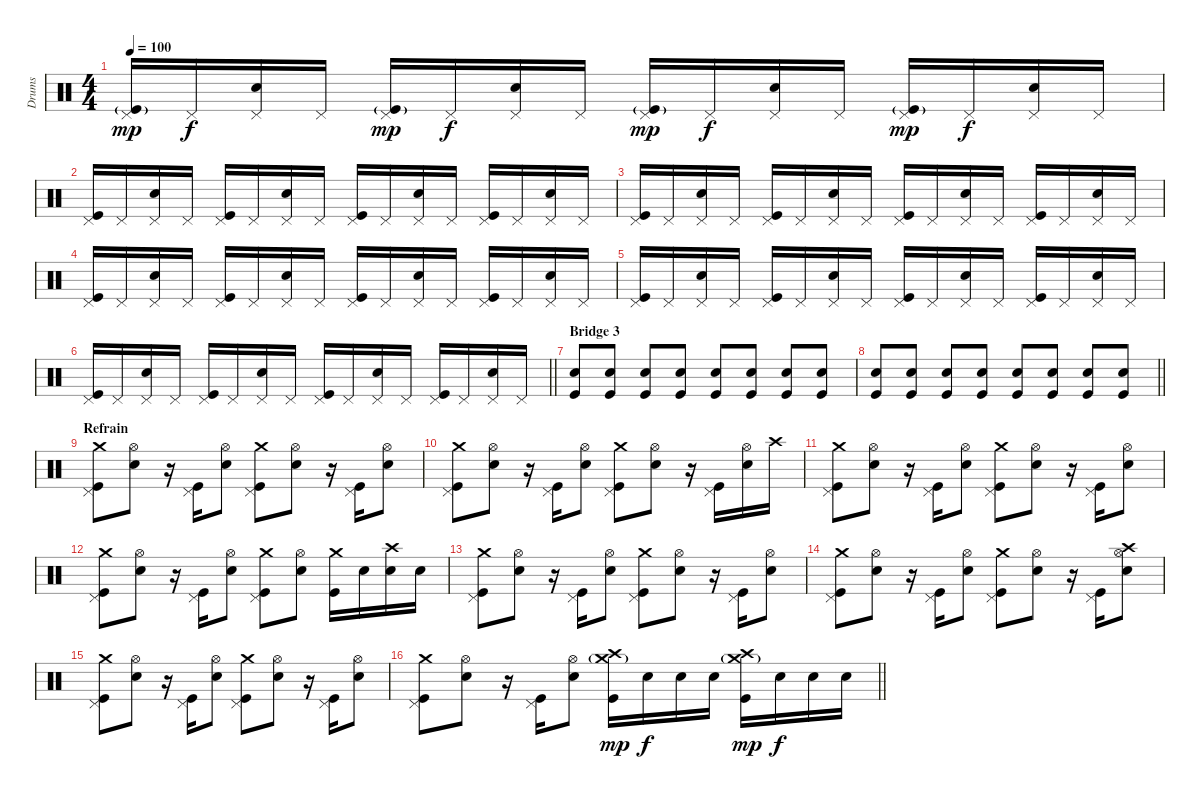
\track ("Drums" "Drums") {instrument percussion}
\staff {score}
\articulation defaults
\ts (4 4)
\tempo 100
\clef neutral
\ks c
("Pedal Hi-Hat (hit)" "Kick (hit)"{g}).16{dy mp} "Pedal Hi-Hat (hit)".16{dy f} ("Pedal Hi-Hat (hit)" "Electric Snare (hit)").16 "Pedal Hi-Hat (hit)".16 ("Pedal Hi-Hat (hit)" "Kick (hit)"{g}).16{dy mp} "Pedal Hi-Hat (hit)".16{dy f} ("Pedal Hi-Hat (hit)" "Electric Snare (hit)").16 "Pedal Hi-Hat (hit)".16 ("Pedal Hi-Hat (hit)" "Kick (hit)"{g}).16{dy mp} "Pedal Hi-Hat (hit)".16{dy f} ("Pedal Hi-Hat (hit)" "Electric Snare (hit)").16 "Pedal Hi-Hat (hit)".16 ("Pedal Hi-Hat (hit)" "Kick (hit)"{g}).16{dy mp} "Pedal Hi-Hat (hit)".16{dy f} ("Pedal Hi-Hat (hit)" "Electric Snare (hit)").16 "Pedal Hi-Hat (hit)".16 |
("Pedal Hi-Hat (hit)" "Kick (hit)").16 "Pedal Hi-Hat (hit)".16 ("Pedal Hi-Hat (hit)" "Electric Snare (hit)").16 "Pedal Hi-Hat (hit)".16 ("Pedal Hi-Hat (hit)" "Kick (hit)").16 "Pedal Hi-Hat (hit)".16 ("Pedal Hi-Hat (hit)" "Electric Snare (hit)").16 "Pedal Hi-Hat (hit)".16 ("Pedal Hi-Hat (hit)" "Kick (hit)").16 "Pedal Hi-Hat (hit)".16 ("Pedal Hi-Hat (hit)" "Electric Snare (hit)").16 "Pedal Hi-Hat (hit)".16 ("Pedal Hi-Hat (hit)" "Kick (hit)").16 "Pedal Hi-Hat (hit)".16 ("Pedal Hi-Hat (hit)" "Electric Snare (hit)").16 "Pedal Hi-Hat (hit)".16 |
("Pedal Hi-Hat (hit)" "Kick (hit)").16 "Pedal Hi-Hat (hit)".16 ("Pedal Hi-Hat (hit)" "Electric Snare (hit)").16 "Pedal Hi-Hat (hit)".16 ("Pedal Hi-Hat (hit)" "Kick (hit)").16 "Pedal Hi-Hat (hit)".16 ("Pedal Hi-Hat (hit)" "Electric Snare (hit)").16 "Pedal Hi-Hat (hit)".16 ("Pedal Hi-Hat (hit)" "Kick (hit)").16 "Pedal Hi-Hat (hit)".16 ("Pedal Hi-Hat (hit)" "Electric Snare (hit)").16 "Pedal Hi-Hat (hit)".16 ("Pedal Hi-Hat (hit)" "Kick (hit)").16 "Pedal Hi-Hat (hit)".16 ("Pedal Hi-Hat (hit)" "Electric Snare (hit)").16 "Pedal Hi-Hat (hit)".16 |
("Pedal Hi-Hat (hit)" "Kick (hit)").16 "Pedal Hi-Hat (hit)".16 ("Pedal Hi-Hat (hit)" "Electric Snare (hit)").16 "Pedal Hi-Hat (hit)".16 ("Pedal Hi-Hat (hit)" "Kick (hit)").16 "Pedal Hi-Hat (hit)".16 ("Pedal Hi-Hat (hit)" "Electric Snare (hit)").16 "Pedal Hi-Hat (hit)".16 ("Pedal Hi-Hat (hit)" "Kick (hit)").16 "Pedal Hi-Hat (hit)".16 ("Pedal Hi-Hat (hit)" "Electric Snare (hit)").16 "Pedal Hi-Hat (hit)".16 ("Pedal Hi-Hat (hit)" "Kick (hit)").16 "Pedal Hi-Hat (hit)".16 ("Pedal Hi-Hat (hit)" "Electric Snare (hit)").16 "Pedal Hi-Hat (hit)".16 |
("Pedal Hi-Hat (hit)" "Kick (hit)").16 "Pedal Hi-Hat (hit)".16 ("Pedal Hi-Hat (hit)" "Electric Snare (hit)").16 "Pedal Hi-Hat (hit)".16 ("Pedal Hi-Hat (hit)" "Kick (hit)").16 "Pedal Hi-Hat (hit)".16 ("Pedal Hi-Hat (hit)" "Electric Snare (hit)").16 "Pedal Hi-Hat (hit)".16 ("Pedal Hi-Hat (hit)" "Kick (hit)").16 "Pedal Hi-Hat (hit)".16 ("Pedal Hi-Hat (hit)" "Electric Snare (hit)").16 "Pedal Hi-Hat (hit)".16 ("Pedal Hi-Hat (hit)" "Kick (hit)").16 "Pedal Hi-Hat (hit)".16 ("Pedal Hi-Hat (hit)" "Electric Snare (hit)").16 "Pedal Hi-Hat (hit)".16 |
\barLineRight lightlight
("Pedal Hi-Hat (hit)" "Kick (hit)").16 "Pedal Hi-Hat (hit)".16 ("Pedal Hi-Hat (hit)" "Electric Snare (hit)").16 "Pedal Hi-Hat (hit)".16 ("Pedal Hi-Hat (hit)" "Kick (hit)").16 "Pedal Hi-Hat (hit)".16 ("Pedal Hi-Hat (hit)" "Electric Snare (hit)").16 "Pedal Hi-Hat (hit)".16 ("Pedal Hi-Hat (hit)" "Kick (hit)").16 "Pedal Hi-Hat (hit)".16 ("Pedal Hi-Hat (hit)" "Electric Snare (hit)").16 "Pedal Hi-Hat (hit)".16 ("Pedal Hi-Hat (hit)" "Kick (hit)").16 "Pedal Hi-Hat (hit)".16 ("Pedal Hi-Hat (hit)" "Electric Snare (hit)").16 "Pedal Hi-Hat (hit)".16 |
\section ("" "Bridge 3")
("Hand Clap (hit)" "Kick (hit)").8 ("Hand Clap (hit)" "Kick (hit)").8 ("Hand Clap (hit)" "Kick (hit)").8 ("Hand Clap (hit)" "Kick (hit)").8 ("Hand Clap (hit)" "Kick (hit)").8 ("Hand Clap (hit)" "Kick (hit)").8 ("Hand Clap (hit)" "Kick (hit)").8 ("Hand Clap (hit)" "Kick (hit)").8 |
\barLineRight lightlight
("Hand Clap (hit)" "Kick (hit)").8 ("Hand Clap (hit)" "Kick (hit)").8 ("Hand Clap (hit)" "Kick (hit)").8 ("Hand Clap (hit)" "Kick (hit)").8 ("Hand Clap (hit)" "Kick (hit)").8 ("Hand Clap (hit)" "Kick (hit)").8 ("Hand Clap (hit)" "Kick (hit)").8 ("Hand Clap (hit)" "Kick (hit)").8 |
\section ("" "Refrain")
("Crash medium (hit)" "Pedal Hi-Hat (hit)" "Kick (hit)").8 ("Hi-Hat (open)" "Electric Snare (hit)").8 r.16 ("Pedal Hi-Hat (hit)" "Kick (hit)").16 ("Hi-Hat (open)" "Electric Snare (hit)").8 ("Crash medium (hit)" "Pedal Hi-Hat (hit)" "Kick (hit)").8 ("Hi-Hat (open)" "Electric Snare (hit)").8 r.16 ("Pedal Hi-Hat (hit)" "Kick (hit)").16 ("Hi-Hat (open)" "Electric Snare (hit)").8 |
("Crash medium (hit)" "Pedal Hi-Hat (hit)" "Kick (hit)").8 ("Hi-Hat (open)" "Electric Snare (hit)").8 r.16 ("Pedal Hi-Hat (hit)" "Kick (hit)").16 ("Hi-Hat (open)" "Electric Snare (hit)").8 ("Crash medium (hit)" "Pedal Hi-Hat (hit)" "Kick (hit)").8 ("Hi-Hat (open)" "Electric Snare (hit)").8 r.16 ("Pedal Hi-Hat (hit)" "Kick (hit)").16 ("Hi-Hat (open)" "Electric Snare (hit)").16 "Crash high (hit)".16 |
("Crash medium (hit)" "Pedal Hi-Hat (hit)" "Kick (hit)").8 ("Hi-Hat (open)" "Electric Snare (hit)").8 r.16 ("Pedal Hi-Hat (hit)" "Kick (hit)").16 ("Hi-Hat (open)" "Electric Snare (hit)").8 ("Crash medium (hit)" "Pedal Hi-Hat (hit)" "Kick (hit)").8 ("Hi-Hat (open)" "Electric Snare (hit)").8 r.16 ("Pedal Hi-Hat (hit)" "Kick (hit)").16 ("Hi-Hat (open)" "Electric Snare (hit)").8 |
("Crash medium (hit)" "Pedal Hi-Hat (hit)" "Kick (hit)").8 ("Hi-Hat (open)" "Electric Snare (hit)").8 r.16 ("Pedal Hi-Hat (hit)" "Kick (hit)").16 ("Hi-Hat (open)" "Electric Snare (hit)").8 ("Crash medium (hit)" "Pedal Hi-Hat (hit)" "Kick (hit)").8 ("Hi-Hat (open)" "Electric Snare (hit)").8 ("Crash medium (hit)" "Kick (hit)").16 "Electric Snare (hit)".16 ("Crash high (hit)" "Electric Snare (hit)").16 "Electric Snare (hit)".16 |
("Crash medium (hit)" "Pedal Hi-Hat (hit)" "Kick (hit)").8 ("Hi-Hat (open)" "Electric Snare (hit)").8 r.16 ("Pedal Hi-Hat (hit)" "Kick (hit)").16 ("Hi-Hat (open)" "Electric Snare (hit)").8 ("Crash medium (hit)" "Pedal Hi-Hat (hit)" "Kick (hit)").8 ("Hi-Hat (open)" "Electric Snare (hit)").8 r.16 ("Pedal Hi-Hat (hit)" "Kick (hit)").16 ("Hi-Hat (open)" "Electric Snare (hit)").8 |
("Crash medium (hit)" "Pedal Hi-Hat (hit)" "Kick (hit)").8 ("Hi-Hat (open)" "Electric Snare (hit)").8 r.16 ("Pedal Hi-Hat (hit)" "Kick (hit)").16 ("Hi-Hat (open)" "Electric Snare (hit)").8 ("Crash medium (hit)" "Pedal Hi-Hat (hit)" "Kick (hit)").8 ("Hi-Hat (open)" "Electric Snare (hit)").8 r.16 ("Pedal Hi-Hat (hit)" "Kick (hit)").16 ("Crash high (hit)" "Hi-Hat (open)" "Electric Snare (hit)").8 |
("Crash medium (hit)" "Pedal Hi-Hat (hit)" "Kick (hit)").8 ("Hi-Hat (open)" "Electric Snare (hit)").8 r.16 ("Pedal Hi-Hat (hit)" "Kick (hit)").16 ("Hi-Hat (open)" "Electric Snare (hit)").8 ("Crash medium (hit)" "Pedal Hi-Hat (hit)" "Kick (hit)").8 ("Hi-Hat (open)" "Electric Snare (hit)").8 r.16 ("Pedal Hi-Hat (hit)" "Kick (hit)").16 ("Hi-Hat (open)" "Electric Snare (hit)").8 |
\barLineRight lightlight
("Crash medium (hit)" "Pedal Hi-Hat (hit)" "Kick (hit)").8 ("Hi-Hat (open)" "Electric Snare (hit)").8 r.16 ("Pedal Hi-Hat (hit)" "Kick (hit)").16 ("Hi-Hat (open)" "Electric Snare (hit)").8 ("Crash high (hit)" "Crash medium (hit)"{g} "Kick (hit)").16{dy mp} "Electric Snare (hit)".16{dy f} "Electric Snare (hit)".16 "Electric Snare (hit)".16 ("Crash high (hit)" "Crash medium (hit)"{g} "Kick (hit)").16{dy mp} "Electric Snare (hit)".16{dy f} "Electric Snare (hit)".16 "Electric Snare (hit)".16
